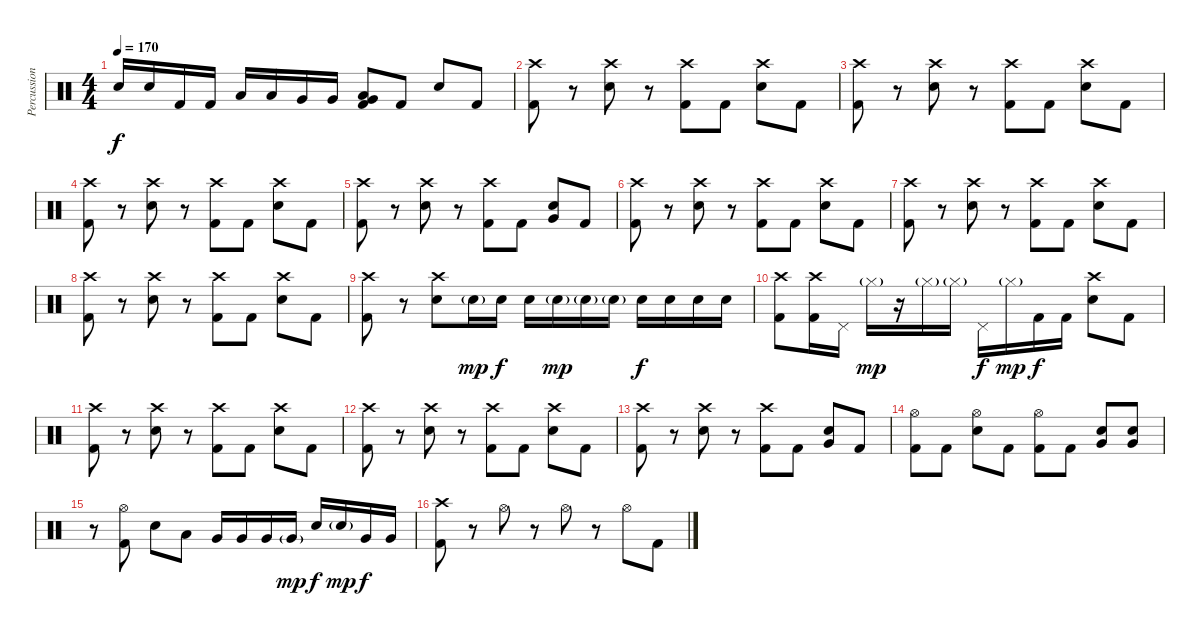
\track ("Percussion" "Percussion") {instrument percussion}
\staff {score}
\articulation defaults
\ts (4 4)
\tempo 170
\clef neutral
\ks c "Electric Snare (hit)".16{dy f} "Electric Snare (hit)".16 "Kick (hit) 2".16 "Kick (hit) 2".16 "Low Tom (hit)".16 "Low Tom (hit)".16 "Very Low Tom (hit)".16 "Very Low Tom (hit)".16
("Low Floor Tom (hit)" "Very Low Tom (hit)" "Kick (hit) 2").8 "Kick (hit) 2".8 "Electric Snare (hit)".8 "Kick (hit) 2".8 |
("Crash high (hit)" "Kick (hit) 2").8 r.8 ("Crash high (hit)" "Electric Snare (hit)").8 r.8 ("Crash high (hit)" "Kick (hit) 2").8 "Kick (hit) 2".8 ("Crash high (hit)" "Electric Snare (hit)").8 "Kick (hit) 2".8 |
("Crash high (hit)" "Kick (hit) 2").8 r.8 ("Crash high (hit)" "Electric Snare (hit)").8 r.8 ("Crash high (hit)" "Kick (hit) 2").8 "Kick (hit) 2".8 ("Crash high (hit)" "Electric Snare (hit)").8 "Kick (hit) 2".8 |
("Crash high (hit)" "Kick (hit) 2").8 r.8 ("Crash high (hit)" "Electric Snare (hit)").8 r.8 ("Crash high (hit)" "Kick (hit) 2").8 "Kick (hit) 2".8 ("Crash high (hit)" "Electric Snare (hit)").8 "Kick (hit) 2".8 |
("Crash high (hit)" "Kick (hit) 2").8 r.8 ("Crash high (hit)" "Electric Snare (hit)").8 r.8 ("Crash high (hit)" "Kick (hit) 2").8 "Kick (hit) 2".8 ("Very Low Tom (hit)" "Electric Snare (hit)").8 "Kick (hit) 2".8 |
("Crash high (hit)" "Kick (hit) 2").8 r.8 ("Crash high (hit)" "Electric Snare (hit)").8 r.8 ("Crash high (hit)" "Kick (hit) 2").8 "Kick (hit) 2".8 ("Crash high (hit)" "Electric Snare (hit)").8 "Kick (hit) 2".8 |
("Crash high (hit)" "Kick (hit) 2").8 r.8 ("Crash high (hit)" "Electric Snare (hit)").8 r.8 ("Crash high (hit)" "Kick (hit) 2").8 "Kick (hit) 2".8 ("Crash high (hit)" "Electric Snare (hit)").8 "Kick (hit) 2".8 |
("Crash high (hit)" "Kick (hit) 2").8 r.8 ("Crash high (hit)" "Electric Snare (hit)").8 r.8 ("Crash high (hit)" "Kick (hit) 2").8 "Kick (hit) 2".8 ("Crash high (hit)" "Electric Snare (hit)").8 "Kick (hit) 2".8 |
("Crash high (hit)" "Kick (hit) 2").8 r.8 ("Crash high (hit)" "Electric Snare (hit)").8 "Electric Snare (hit)"{g}.16{dy mp} "Electric Snare (hit)".16{dy f} "Electric Snare (hit)".16 "Electric Snare (hit)"{g}.16{dy mp} "Electric Snare (hit)"{g}.16 "Electric Snare (hit)"{g}.16 "Electric Snare (hit)".16{dy f} "Electric Snare (hit)".16 "Electric Snare (hit)".16 "Electric Snare (hit)".16 |
("Crash high (hit)" "Kick (hit) 2").8 ("Crash high (hit)" "Kick (hit) 2").16 "Pedal Hi-Hat (hit)".16 "Hi-Hat (closed)"{g}.16{dy mp} r.16 "Hi-Hat (closed)"{g}.16 "Hi-Hat (closed)"{g}.16 "Pedal Hi-Hat (hit)".16{dy f} "Hi-Hat (closed)"{g}.16{dy mp} "Kick (hit) 2".16{dy f} "Kick (hit) 2".16 ("Crash high (hit)" "Electric Snare (hit)").8 "Kick (hit) 2".8 |
("Crash high (hit)" "Kick (hit) 2").8 r.8 ("Crash high (hit)" "Electric Snare (hit)").8 r.8 ("Crash high (hit)" "Kick (hit) 2").8 "Kick (hit) 2".8 ("Crash high (hit)" "Electric Snare (hit)").8 "Kick (hit) 2".8 |
("Crash high (hit)" "Kick (hit) 2").8 r.8 ("Crash high (hit)" "Electric Snare (hit)").8 r.8 ("Crash high (hit)" "Kick (hit) 2").8 "Kick (hit) 2".8 ("Crash high (hit)" "Electric Snare (hit)").8 "Kick (hit) 2".8 |
("Crash high (hit)" "Kick (hit) 2").8 r.8 ("Crash high (hit)" "Electric Snare (hit)").8 r.8 ("Crash high (hit)" "Kick (hit) 2").8 "Kick (hit) 2".8 ("Very Low Tom (hit)" "Electric Snare (hit)").8 "Kick (hit) 2".8 |
("Hi-Hat (open)" "Kick (hit) 2").8 "Kick (hit) 2".8 ("Hi-Hat (open)" "Electric Snare (hit)").8 "Kick (hit) 2".8 ("Hi-Hat (open)" "Kick (hit) 2").8 "Kick (hit) 2".8 ("Very Low Tom (hit)" "Electric Snare (hit)").8 ("Very Low Tom (hit)" "Electric Snare (hit)").8 |
r.8 ("Hi-Hat (open)" "Kick (hit) 2").8 "Electric Snare (hit)".8 "Low Tom (hit)".8 "Very Low Tom (hit)".16 "Very Low Tom (hit)".16 "Very Low Tom (hit)".16 "Very Low Tom (hit)"{g}.16{dy mp} "Electric Snare (hit)".16{dy f} "Electric Snare (hit)"{g}.16{dy mp} "Very Low Tom (hit)".16{dy f} "Very Low Tom (hit)".16 |
("Crash high (hit)" "Kick (hit) 2").8 r.8 "Hi-Hat (open)".8 r.8 "Hi-Hat (open)".8 r.8 "Hi-Hat (open)".8 "Kick (hit) 2".8
